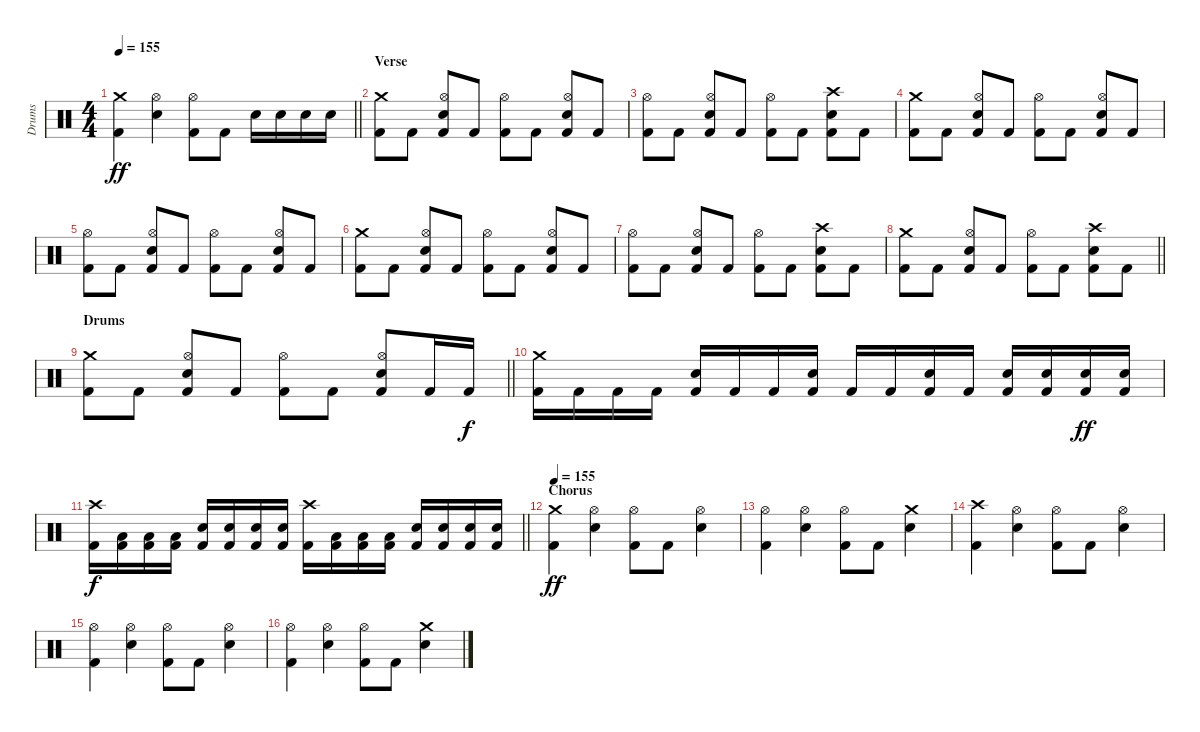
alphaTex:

\track ("Drums" "Drums") {solo instrument percussion}
\staff {score}
\articulation defaults
\ts (4 4)
\tempo 155
\clef neutral
\barLineRight lightlight
\ks c
("Crash medium (hit)" "Kick (hit) 2").4{dy ff} ("Hi-Hat (open)" "Electric Snare (hit)").4 ("Hi-Hat (open)" "Kick (hit) 2").8 "Kick (hit) 2".8 "Electric Snare (hit)".16 "Electric Snare (hit)".16 "Electric Snare (hit)".16 "Electric Snare (hit)".16 |
\section ("" "Verse")
("Crash medium (hit)" "Kick (hit) 2").8 "Kick (hit) 2".8 ("Hi-Hat (open)" "Electric Snare (hit)" "Kick (hit) 2").8 "Kick (hit) 2".8 ("Hi-Hat (open)" "Kick (hit) 2").8 "Kick (hit) 2".8 ("Electric Snare (hit)" "Hi-Hat (open)" "Kick (hit) 2").8 "Kick (hit) 2".8 |
("Hi-Hat (open)" "Kick (hit) 2").8 "Kick (hit) 2".8 ("Hi-Hat (open)" "Electric Snare (hit)" "Kick (hit) 2").8 "Kick (hit) 2".8 ("Hi-Hat (open)" "Kick (hit) 2").8 "Kick (hit) 2".8 ("Electric Snare (hit)" "Crash high (hit)" "Kick (hit) 2").8 "Kick (hit) 2".8 |
("Crash medium (hit)" "Kick (hit) 2").8 "Kick (hit) 2".8 ("Hi-Hat (open)" "Electric Snare (hit)" "Kick (hit) 2").8 "Kick (hit) 2".8 ("Hi-Hat (open)" "Kick (hit) 2").8 "Kick (hit) 2".8 ("Electric Snare (hit)" "Hi-Hat (open)" "Kick (hit) 2").8 "Kick (hit) 2".8 |
("Hi-Hat (open)" "Kick (hit) 2").8 "Kick (hit) 2".8 ("Hi-Hat (open)" "Electric Snare (hit)" "Kick (hit) 2").8 "Kick (hit) 2".8 ("Hi-Hat (open)" "Kick (hit) 2").8 "Kick (hit) 2".8 ("Electric Snare (hit)" "Hi-Hat (open)" "Kick (hit) 2").8 "Kick (hit) 2".8 |
("Crash medium (hit)" "Kick (hit) 2").8 "Kick (hit) 2".8 ("Hi-Hat (open)" "Electric Snare (hit)" "Kick (hit) 2").8 "Kick (hit) 2".8 ("Hi-Hat (open)" "Kick (hit) 2").8 "Kick (hit) 2".8 ("Electric Snare (hit)" "Hi-Hat (open)" "Kick (hit) 2").8 "Kick (hit) 2".8 |
("Hi-Hat (open)" "Kick (hit) 2").8 "Kick (hit) 2".8 ("Hi-Hat (open)" "Electric Snare (hit)" "Kick (hit) 2").8 "Kick (hit) 2".8 ("Hi-Hat (open)" "Kick (hit) 2").8 "Kick (hit) 2".8 ("Electric Snare (hit)" "Crash high (hit)" "Kick (hit) 2").8 "Kick (hit) 2".8 |
\barLineRight lightlight
("Crash medium (hit)" "Kick (hit) 2").8 "Kick (hit) 2".8 ("Hi-Hat (open)" "Electric Snare (hit)" "Kick (hit) 2").8 "Kick (hit) 2".8 ("Hi-Hat (open)" "Kick (hit) 2").8 "Kick (hit) 2".8 ("Electric Snare (hit)" "Crash high (hit)" "Kick (hit) 2").8 "Kick (hit) 2".8 |
\section ("" "Drums ")
\barLineRight lightlight
("Crash medium (hit)" "Kick (hit) 2").8 "Kick (hit) 2".8 ("Hi-Hat (open)" "Electric Snare (hit)" "Kick (hit) 2").8 "Kick (hit) 2".8 ("Hi-Hat (open)" "Kick (hit) 2").8 "Kick (hit) 2".8 ("Electric Snare (hit)" "Hi-Hat (open)" "Kick (hit) 2").8 "Kick (hit) 2".16 "Kick (hit) 2".16{dy f} |
("Crash medium (hit)" "Kick (hit) 2").16 "Kick (hit) 2".16 "Kick (hit) 2".16 "Kick (hit) 2".16 ("Electric Snare (hit)" "Kick (hit) 2").16 "Kick (hit) 2".16 "Kick (hit) 2".16 ("Electric Snare (hit)" "Kick (hit) 2").16 "Kick (hit) 2".16 "Kick (hit) 2".16 ("Electric Snare (hit)" "Kick (hit) 2").16 "Kick (hit) 2".16 ("Electric Snare (hit)" "Kick (hit) 2").16 ("Electric Snare (hit)" "Kick (hit) 2").16 ("Electric Snare (hit)" "Kick (hit) 2").16{dy ff} ("Electric Snare (hit)" "Kick (hit) 2").16 |
\barLineRight lightlight
("Crash high (hit)" "Kick (hit) 2").16{dy f} ("Low Tom (hit)" "Kick (hit) 2").16 ("Low Tom (hit)" "Kick (hit) 2").16 ("Low Tom (hit)" "Kick (hit) 2").16 ("Electric Snare (hit)" "Kick (hit) 2").16 ("Electric Snare (hit)" "Kick (hit) 2").16 ("Electric Snare (hit)" "Kick (hit) 2").16 ("Electric Snare (hit)" "Kick (hit) 2").16 ("Crash high (hit)" "Kick (hit) 2").16 ("Low Tom (hit)" "Kick (hit) 2").16 ("Low Tom (hit)" "Kick (hit) 2").16 ("Low Tom (hit)" "Kick (hit) 2").16 ("Electric Snare (hit)" "Kick (hit) 2").16 ("Electric Snare (hit)" "Kick (hit) 2").16 ("Electric Snare (hit)" "Kick (hit) 2").16 ("Electric Snare (hit)" "Kick (hit) 2").16 |
\section ("" "Chorus")
\tempo 155
("Crash medium (hit)" "Kick (hit) 2").4{dy ff} ("Hi-Hat (open)" "Electric Snare (hit)").4 ("Hi-Hat (open)" "Kick (hit) 2").8 "Kick (hit) 2".8 ("Hi-Hat (open)" "Electric Snare (hit)").4 |
("Hi-Hat (open)" "Kick (hit) 2").4 ("Hi-Hat (open)" "Electric Snare (hit)").4 ("Hi-Hat (open)" "Kick (hit) 2").8 "Kick (hit) 2".8 ("Crash medium (hit)" "Electric Snare (hit)").4 |
("Crash high (hit)" "Kick (hit) 2").4 ("Hi-Hat (open)" "Electric Snare (hit)").4 ("Hi-Hat (open)" "Kick (hit) 2").8 "Kick (hit) 2".8 ("Hi-Hat (open)" "Electric Snare (hit)").4 |
("Hi-Hat (open)" "Kick (hit) 2").4 ("Hi-Hat (open)" "Electric Snare (hit)").4 ("Hi-Hat (open)" "Kick (hit) 2").8 "Kick (hit) 2".8 ("Hi-Hat (open)" "Electric Snare (hit)").4 |
("Hi-Hat (open)" "Kick (hit) 2").4 ("Hi-Hat (open)" "Electric Snare (hit)").4 ("Hi-Hat (open)" "Kick (hit) 2").8 "Kick (hit) 2".8 ("Crash medium (hit)" "Electric Snare (hit)").4
